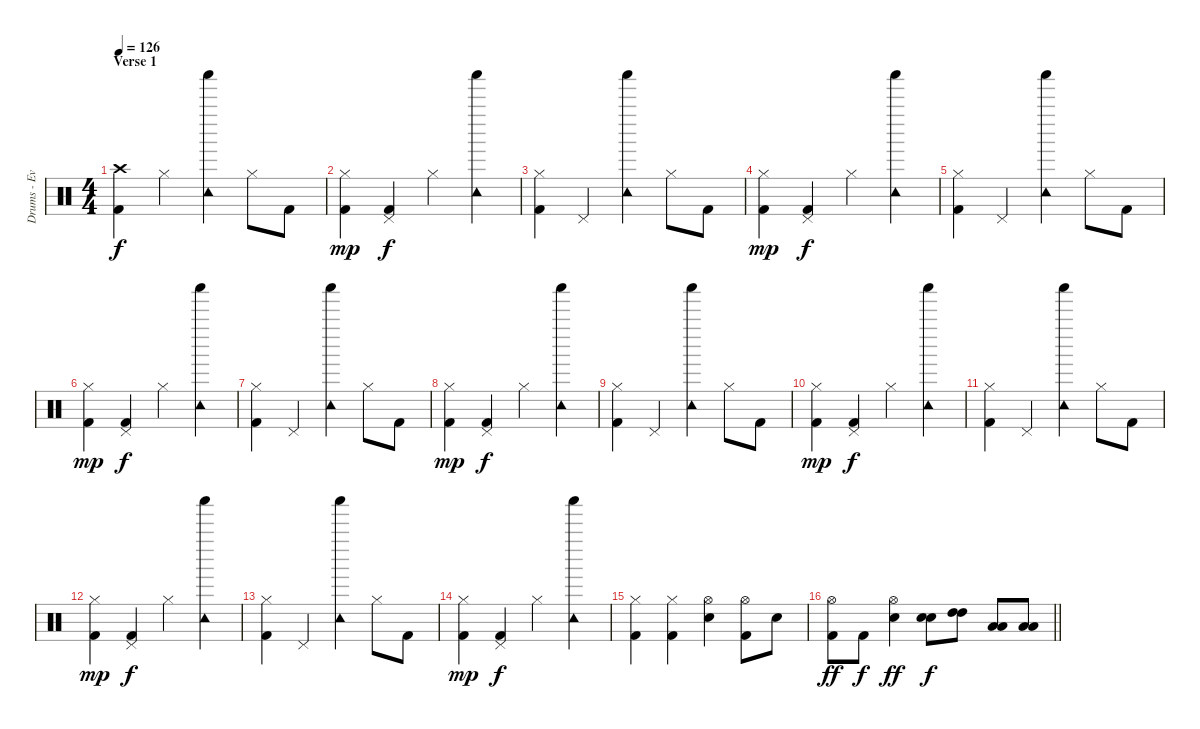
\track ("Drums - Evans" "Drums - Ev") {instrument percussion}
\staff {score}
\articulation defaults
\ts (4 4)
\section ("" "Verse 1")
\tempo 126
\clef neutral
\ks c
("Crash high (hit)" "Kick (hit) 2").4{dy f} "Hi-Hat (closed)".4 ("Tambourine (hit)" "Shaker (hit)").4 "Hi-Hat (closed)".8 "Kick (hit) 2".8 |
("Hi-Hat (closed)" "Kick (hit) 2").4{dy mp} ("Pedal Hi-Hat (hit)" "Kick (hit) 2").4{dy f} "Hi-Hat (closed)".4 ("Tambourine (hit)" "Shaker (hit)").4 |
("Hi-Hat (closed)" "Kick (hit) 2").4 "Pedal Hi-Hat (hit)".4 ("Tambourine (hit)" "Shaker (hit)").4 "Hi-Hat (closed)".8 "Kick (hit) 2".8 |
("Hi-Hat (closed)" "Kick (hit) 2").4{dy mp} ("Pedal Hi-Hat (hit)" "Kick (hit) 2").4{dy f} "Hi-Hat (closed)".4 ("Tambourine (hit)" "Shaker (hit)").4 |
("Hi-Hat (closed)" "Kick (hit) 2").4 "Pedal Hi-Hat (hit)".4 ("Tambourine (hit)" "Shaker (hit)").4 "Hi-Hat (closed)".8 "Kick (hit) 2".8 |
("Hi-Hat (closed)" "Kick (hit) 2").4{dy mp} ("Pedal Hi-Hat (hit)" "Kick (hit) 2").4{dy f} "Hi-Hat (closed)".4 ("Tambourine (hit)" "Shaker (hit)").4 |
("Hi-Hat (closed)" "Kick (hit) 2").4 "Pedal Hi-Hat (hit)".4 ("Tambourine (hit)" "Shaker (hit)").4 "Hi-Hat (closed)".8 "Kick (hit) 2".8 |
("Hi-Hat (closed)" "Kick (hit) 2").4{dy mp} ("Pedal Hi-Hat (hit)" "Kick (hit) 2").4{dy f} "Hi-Hat (closed)".4 ("Tambourine (hit)" "Shaker (hit)").4 |
("Hi-Hat (closed)" "Kick (hit) 2").4 "Pedal Hi-Hat (hit)".4 ("Tambourine (hit)" "Shaker (hit)").4 "Hi-Hat (closed)".8 "Kick (hit) 2".8 |
("Hi-Hat (closed)" "Kick (hit) 2").4{dy mp} ("Pedal Hi-Hat (hit)" "Kick (hit) 2").4{dy f} "Hi-Hat (closed)".4 ("Tambourine (hit)" "Shaker (hit)").4 |
("Hi-Hat (closed)" "Kick (hit) 2").4 "Pedal Hi-Hat (hit)".4 ("Tambourine (hit)" "Shaker (hit)").4 "Hi-Hat (closed)".8 "Kick (hit) 2".8 |
("Hi-Hat (closed)" "Kick (hit) 2").4{dy mp} ("Pedal Hi-Hat (hit)" "Kick (hit) 2").4{dy f} "Hi-Hat (closed)".4 ("Tambourine (hit)" "Shaker (hit)").4 |
("Hi-Hat (closed)" "Kick (hit) 2").4 "Pedal Hi-Hat (hit)".4 ("Tambourine (hit)" "Shaker (hit)").4 "Hi-Hat (closed)".8 "Kick (hit) 2".8 |
("Hi-Hat (closed)" "Kick (hit) 2").4{dy mp} ("Pedal Hi-Hat (hit)" "Kick (hit) 2").4{dy f} "Hi-Hat (closed)".4 ("Tambourine (hit)" "Shaker (hit)").4 |
("Hi-Hat (closed)" "Kick (hit) 2").4 ("Hi-Hat (closed)" "Kick (hit) 2").4 ("Hi-Hat (open)" "Electric Snare (hit)").4 ("Hi-Hat (open)" "Kick (hit) 2").8 "Electric Snare (hit)".8 |
\barLineRight lightlight
("Hi-Hat (open)" "Kick (hit) 2").8{dy ff} "Kick (hit) 2".8{dy f} ("Hi-Hat (open)" "Electric Snare (hit)").4{dy ff} ("Electric Snare (hit)" "Electric Snare (hit)").8{dy f} ("High Tom (hit)" "High Tom (hit)").8 ("Low Tom (hit)" "Low Tom (hit)").8 ("Low Floor Tom (hit)" "Low Floor Tom (hit)").8
